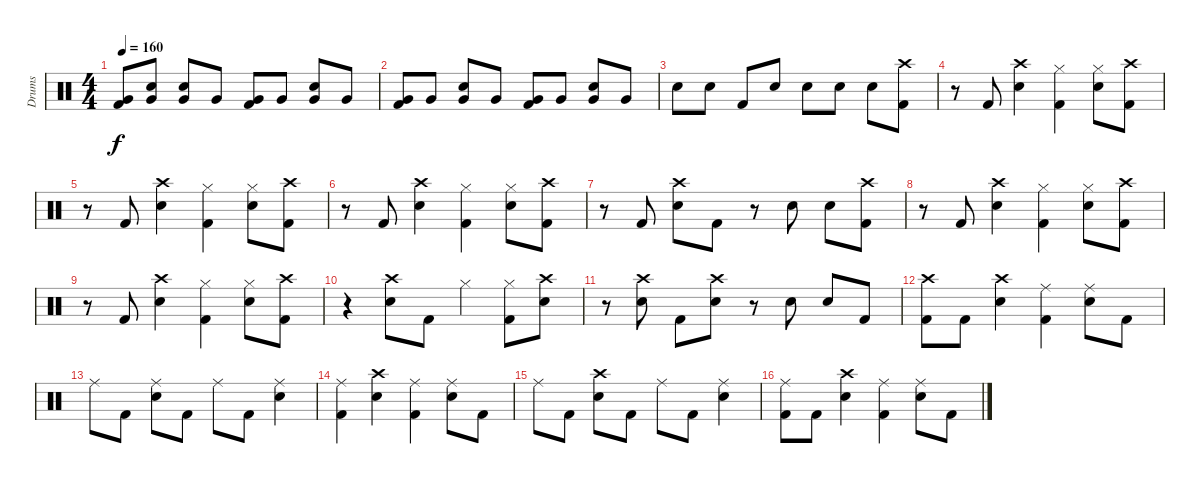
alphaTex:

\track ("Drums" "Drums") {instrument percussion}
\staff {score}
\articulation defaults
\ts (4 4)
\tempo 160
\clef neutral
\ks c
("Very Low Tom (hit)" "Kick (hit) 2").8{dy f} ("Electric Snare (hit)" "Very Low Tom (hit)").8 ("Electric Snare (hit)" "Very Low Tom (hit)").8 "Very Low Tom (hit)".8 ("Very Low Tom (hit)" "Kick (hit) 2").8 "Very Low Tom (hit)".8 ("Electric Snare (hit)" "Very Low Tom (hit)").8 "Very Low Tom (hit)".8 |
("Very Low Tom (hit)" "Kick (hit) 2").8 "Very Low Tom (hit)".8 ("Electric Snare (hit)" "Very Low Tom (hit)").8 "Very Low Tom (hit)".8 ("Very Low Tom (hit)" "Kick (hit) 2").8 "Very Low Tom (hit)".8 ("Electric Snare (hit)" "Very Low Tom (hit)").8 "Very Low Tom (hit)".8 |
"Electric Snare (hit)".8 "Electric Snare (hit)".8 "Kick (hit) 2".8 "Electric Snare (hit)".8 "Electric Snare (hit)".8 "Electric Snare (hit)".8 "Electric Snare (hit)".8 ("Crash high (hit)" "Kick (hit) 2").8 |
r.8 "Kick (hit) 2".8 ("Crash high (hit)" "Electric Snare (hit)").4 ("Hi-Hat (closed)" "Kick (hit) 2").4 ("Hi-Hat (closed)" "Electric Snare (hit)").8 ("Crash high (hit)" "Kick (hit) 2").8 |
r.8 "Kick (hit) 2".8 ("Crash high (hit)" "Electric Snare (hit)").4 ("Hi-Hat (closed)" "Kick (hit) 2").4 ("Hi-Hat (closed)" "Electric Snare (hit)").8 ("Crash high (hit)" "Kick (hit) 2").8 |
r.8 "Kick (hit) 2".8 ("Crash high (hit)" "Electric Snare (hit)").4 ("Hi-Hat (closed)" "Kick (hit) 2").4 ("Hi-Hat (closed)" "Electric Snare (hit)").8 ("Crash high (hit)" "Kick (hit) 2").8 |
r.8 "Kick (hit) 2".8 ("Crash high (hit)" "Electric Snare (hit)").8 "Kick (hit) 2".8 r.8 "Electric Snare (hit)".8 "Electric Snare (hit)".8 ("Crash high (hit)" "Kick (hit) 2").8 |
r.8 "Kick (hit) 2".8 ("Crash high (hit)" "Electric Snare (hit)").4 ("Hi-Hat (closed)" "Kick (hit) 2").4 ("Hi-Hat (closed)" "Electric Snare (hit)").8 ("Crash high (hit)" "Kick (hit) 2").8 |
r.8 "Kick (hit) 2".8 ("Crash high (hit)" "Electric Snare (hit)").4 ("Hi-Hat (closed)" "Kick (hit) 2").4 ("Hi-Hat (closed)" "Electric Snare (hit)").8 ("Crash high (hit)" "Kick (hit) 2").8 |
r.4 ("Crash high (hit)" "Electric Snare (hit)").8 "Kick (hit) 2".8 "Hi-Hat (closed)".4 ("Hi-Hat (closed)" "Kick (hit) 2").8 ("Crash high (hit)" "Electric Snare (hit)").8 |
r.8 ("Crash high (hit)" "Electric Snare (hit)").8 "Kick (hit) 2".8 ("Crash high (hit)" "Electric Snare (hit)").8 r.8 "Electric Snare (hit)".8 "Electric Snare (hit)".8 "Kick (hit) 2".8 |
("Crash high (hit)" "Kick (hit) 2").8 "Kick (hit) 2".8 ("Crash high (hit)" "Electric Snare (hit)").4 ("Ride (middle)" "Kick (hit) 2").4 ("Ride (middle)" "Electric Snare (hit)").8 "Kick (hit) 2".8 |
"Ride (middle)".8 "Kick (hit) 2".8 ("Ride (middle)" "Electric Snare (hit)").8 "Kick (hit) 2".8 "Ride (middle)".8 "Kick (hit) 2".8 ("Ride (middle)" "Electric Snare (hit)").4 |
("Ride (middle)" "Kick (hit) 2").4 ("Crash high (hit)" "Electric Snare (hit)").4 ("Ride (middle)" "Kick (hit) 2").4 ("Ride (middle)" "Electric Snare (hit)").8 "Kick (hit) 2".8 |
"Ride (middle)".8 "Kick (hit) 2".8 ("Crash high (hit)" "Electric Snare (hit)").8 "Kick (hit) 2".8 "Ride (middle)".8 "Kick (hit) 2".8 ("Ride (middle)" "Electric Snare (hit)").4 |
("Ride (middle)" "Kick (hit) 2").8 "Kick (hit) 2".8 ("Crash high (hit)" "Electric Snare (hit)").4 ("Ride (middle)" "Kick (hit) 2").4 ("Ride (middle)" "Electric Snare (hit)").8 "Kick (hit) 2".8
